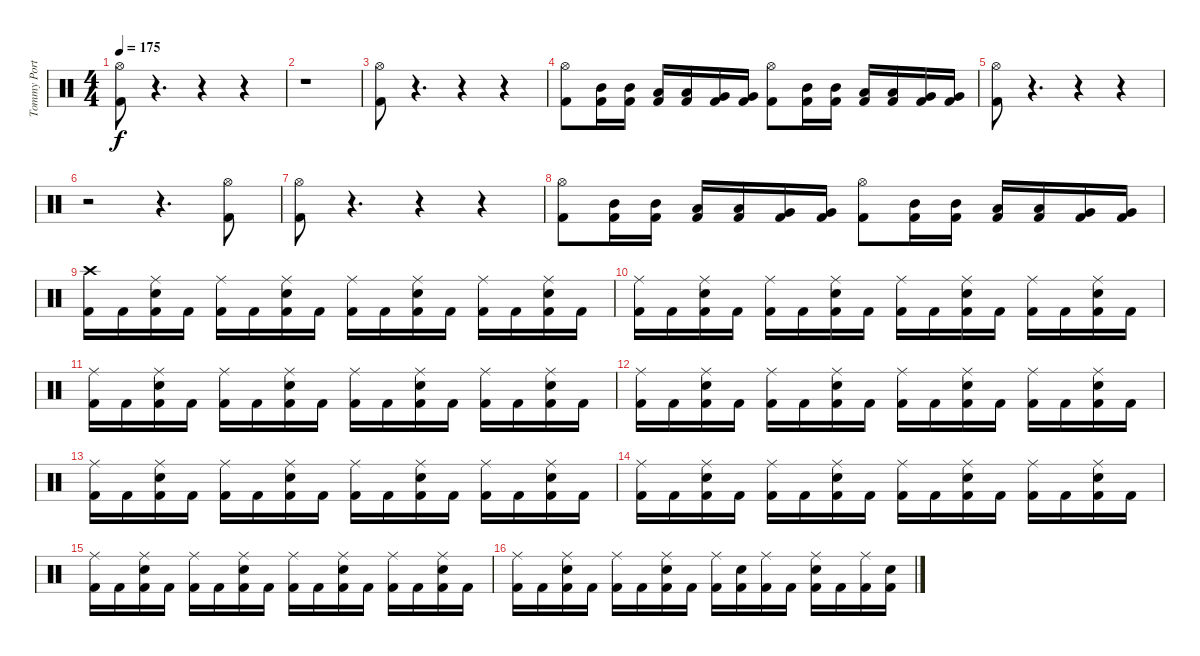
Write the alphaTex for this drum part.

\track ("Tommy Portimo" "Tommy Port") {instrument percussion}
\staff {score}
\articulation defaults
\ts (4 4)
\tempo 175
\clef neutral
\ks c
("Hi-Hat (open)" "Kick (hit) 2").8{dy f} r.4{d} r.4 r.4 |
r.1 |
("Hi-Hat (open)" "Kick (hit) 2").8 r.4{d} r.4 r.4 |
("Hi-Hat (open)" "Kick (hit) 2").8 ("Mid Tom (hit)" "Kick (hit) 2").16 ("Mid Tom (hit)" "Kick (hit) 2").16 ("Low Tom (hit)" "Kick (hit) 2").16 ("Low Tom (hit)" "Kick (hit) 2").16 ("Very Low Tom (hit)" "Kick (hit) 2").16 ("Very Low Tom (hit)" "Kick (hit) 2").16 ("Hi-Hat (open)" "Kick (hit) 2").8 ("Mid Tom (hit)" "Kick (hit) 2").16 ("Mid Tom (hit)" "Kick (hit) 2").16 ("Low Tom (hit)" "Kick (hit) 2").16 ("Low Tom (hit)" "Kick (hit) 2").16 ("Very Low Tom (hit)" "Kick (hit) 2").16 ("Very Low Tom (hit)" "Kick (hit) 2").16 |
("Hi-Hat (open)" "Kick (hit) 2").8 r.4{d} r.4 r.4 |
r.2 r.4{d} ("Hi-Hat (open)" "Kick (hit) 2").8 |
("Hi-Hat (open)" "Kick (hit) 2").8 r.4{d} r.4 r.4 |
("Hi-Hat (open)" "Kick (hit) 2").8 ("Mid Tom (hit)" "Kick (hit) 2").16 ("Mid Tom (hit)" "Kick (hit) 2").16 ("Low Tom (hit)" "Kick (hit) 2").16 ("Low Tom (hit)" "Kick (hit) 2").16 ("Very Low Tom (hit)" "Kick (hit) 2").16 ("Very Low Tom (hit)" "Kick (hit) 2").16 ("Hi-Hat (open)" "Kick (hit) 2").8 ("Mid Tom (hit)" "Kick (hit) 2").16 ("Mid Tom (hit)" "Kick (hit) 2").16 ("Low Tom (hit)" "Kick (hit) 2").16 ("Low Tom (hit)" "Kick (hit) 2").16 ("Very Low Tom (hit)" "Kick (hit) 2").16 ("Very Low Tom (hit)" "Kick (hit) 2").16 |
("Crash high (hit)" "Kick (hit) 2").16 "Kick (hit) 2".16 ("Ride (middle)" "Electric Snare (hit)" "Kick (hit) 2").16 "Kick (hit) 2".16 ("Ride (middle)" "Kick (hit) 2").16 "Kick (hit) 2".16 ("Ride (middle)" "Electric Snare (hit)" "Kick (hit) 2").16 "Kick (hit) 2".16 ("Ride (middle)" "Kick (hit) 2").16 "Kick (hit) 2".16 ("Ride (middle)" "Electric Snare (hit)" "Kick (hit) 2").16 "Kick (hit) 2".16 ("Ride (middle)" "Kick (hit) 2").16 "Kick (hit) 2".16 ("Ride (middle)" "Electric Snare (hit)" "Kick (hit) 2").16 "Kick (hit) 2".16 |
("Ride (middle)" "Kick (hit) 2").16 "Kick (hit) 2".16 ("Ride (middle)" "Electric Snare (hit)" "Kick (hit) 2").16 "Kick (hit) 2".16 ("Ride (middle)" "Kick (hit) 2").16 "Kick (hit) 2".16 ("Ride (middle)" "Electric Snare (hit)" "Kick (hit) 2").16 "Kick (hit) 2".16 ("Ride (middle)" "Kick (hit) 2").16 "Kick (hit) 2".16 ("Ride (middle)" "Electric Snare (hit)" "Kick (hit) 2").16 "Kick (hit) 2".16 ("Ride (middle)" "Kick (hit) 2").16 "Kick (hit) 2".16 ("Ride (middle)" "Electric Snare (hit)" "Kick (hit) 2").16 "Kick (hit) 2".16 |
("Ride (middle)" "Kick (hit) 2").16 "Kick (hit) 2".16 ("Ride (middle)" "Electric Snare (hit)" "Kick (hit) 2").16 "Kick (hit) 2".16 ("Ride (middle)" "Kick (hit) 2").16 "Kick (hit) 2".16 ("Ride (middle)" "Electric Snare (hit)" "Kick (hit) 2").16 "Kick (hit) 2".16 ("Ride (middle)" "Kick (hit) 2").16 "Kick (hit) 2".16 ("Ride (middle)" "Electric Snare (hit)" "Kick (hit) 2").16 "Kick (hit) 2".16 ("Ride (middle)" "Kick (hit) 2").16 "Kick (hit) 2".16 ("Ride (middle)" "Electric Snare (hit)" "Kick (hit) 2").16 "Kick (hit) 2".16 |
("Ride (middle)" "Kick (hit) 2").16 "Kick (hit) 2".16 ("Ride (middle)" "Electric Snare (hit)" "Kick (hit) 2").16 "Kick (hit) 2".16 ("Ride (middle)" "Kick (hit) 2").16 "Kick (hit) 2".16 ("Ride (middle)" "Electric Snare (hit)" "Kick (hit) 2").16 "Kick (hit) 2".16 ("Ride (middle)" "Kick (hit) 2").16 "Kick (hit) 2".16 ("Ride (middle)" "Electric Snare (hit)" "Kick (hit) 2").16 "Kick (hit) 2".16 ("Ride (middle)" "Kick (hit) 2").16 "Kick (hit) 2".16 ("Ride (middle)" "Electric Snare (hit)" "Kick (hit) 2").16 "Kick (hit) 2".16 |
("Ride (middle)" "Kick (hit) 2").16 "Kick (hit) 2".16 ("Ride (middle)" "Electric Snare (hit)" "Kick (hit) 2").16 "Kick (hit) 2".16 ("Ride (middle)" "Kick (hit) 2").16 "Kick (hit) 2".16 ("Ride (middle)" "Electric Snare (hit)" "Kick (hit) 2").16 "Kick (hit) 2".16 ("Ride (middle)" "Kick (hit) 2").16 "Kick (hit) 2".16 ("Ride (middle)" "Electric Snare (hit)" "Kick (hit) 2").16 "Kick (hit) 2".16 ("Ride (middle)" "Kick (hit) 2").16 "Kick (hit) 2".16 ("Ride (middle)" "Electric Snare (hit)" "Kick (hit) 2").16 "Kick (hit) 2".16 |
("Ride (middle)" "Kick (hit) 2").16 "Kick (hit) 2".16 ("Ride (middle)" "Electric Snare (hit)" "Kick (hit) 2").16 "Kick (hit) 2".16 ("Ride (middle)" "Kick (hit) 2").16 "Kick (hit) 2".16 ("Ride (middle)" "Electric Snare (hit)" "Kick (hit) 2").16 "Kick (hit) 2".16 ("Ride (middle)" "Kick (hit) 2").16 "Kick (hit) 2".16 ("Ride (middle)" "Electric Snare (hit)" "Kick (hit) 2").16 "Kick (hit) 2".16 ("Ride (middle)" "Kick (hit) 2").16 "Kick (hit) 2".16 ("Ride (middle)" "Electric Snare (hit)" "Kick (hit) 2").16 "Kick (hit) 2".16 |
("Ride (middle)" "Kick (hit) 2").16 "Kick (hit) 2".16 ("Ride (middle)" "Electric Snare (hit)" "Kick (hit) 2").16 "Kick (hit) 2".16 ("Ride (middle)" "Kick (hit) 2").16 "Kick (hit) 2".16 ("Ride (middle)" "Electric Snare (hit)" "Kick (hit) 2").16 "Kick (hit) 2".16 ("Ride (middle)" "Kick (hit) 2").16 "Kick (hit) 2".16 ("Ride (middle)" "Electric Snare (hit)" "Kick (hit) 2").16 "Kick (hit) 2".16 ("Ride (middle)" "Kick (hit) 2").16 "Kick (hit) 2".16 ("Ride (middle)" "Electric Snare (hit)" "Kick (hit) 2").16 "Kick (hit) 2".16 |
("Ride (middle)" "Kick (hit) 2").16 "Kick (hit) 2".16 ("Ride (middle)" "Electric Snare (hit)" "Kick (hit) 2").16 "Kick (hit) 2".16 ("Ride (middle)" "Kick (hit) 2").16 "Kick (hit) 2".16 ("Ride (middle)" "Electric Snare (hit)" "Kick (hit) 2").16 "Kick (hit) 2".16 ("Ride (middle)" "Kick (hit) 2").16 ("Electric Snare (hit)" "Kick (hit) 2").16 ("Ride (middle)" "Kick (hit) 2").16 "Kick (hit) 2".16 ("Ride (middle)" "Electric Snare (hit)" "Kick (hit) 2").16 "Kick (hit) 2".16 ("Ride (middle)" "Kick (hit) 2").16 ("Electric Snare (hit)" "Kick (hit) 2").16
